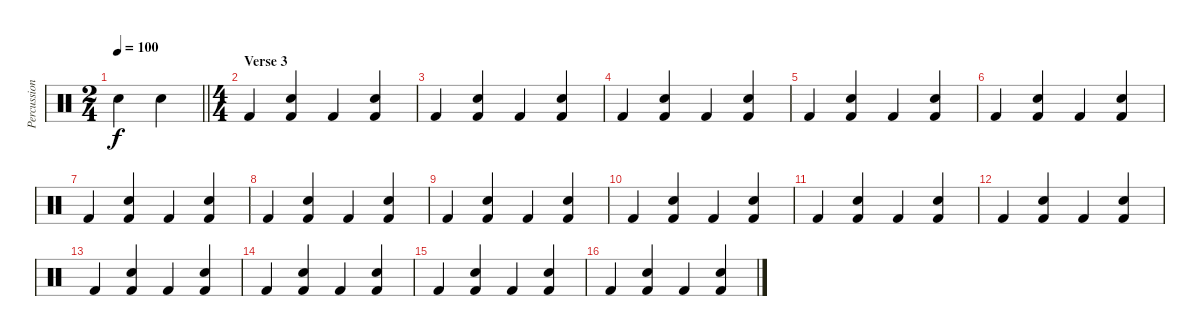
\track ("Percussion" "Percussion") {instrument percussion}
\staff {score}
\articulation defaults
\ts (2 4)
\tempo 100
\clef neutral
\barLineRight lightlight
\ks c "Snare (hit) 2".4{dy f} "Snare (hit) 2".4
|
\ts (4 4)
\section ("" "Verse 3")
"Kick (hit) 2".4 ("Snare (hit) 2" "Kick (hit) 2").4 "Kick (hit) 2".4 ("Snare (hit) 2" "Kick (hit) 2").4 |
"Kick (hit) 2".4 ("Snare (hit) 2" "Kick (hit) 2").4 "Kick (hit) 2".4 ("Snare (hit) 2" "Kick (hit) 2").4 |
"Kick (hit) 2".4 ("Snare (hit) 2" "Kick (hit) 2").4 "Kick (hit) 2".4 ("Snare (hit) 2" "Kick (hit) 2").4 |
"Kick (hit) 2".4 ("Snare (hit) 2" "Kick (hit) 2").4 "Kick (hit) 2".4 ("Snare (hit) 2" "Kick (hit) 2").4 |
"Kick (hit) 2".4 ("Snare (hit) 2" "Kick (hit) 2").4 "Kick (hit) 2".4 ("Snare (hit) 2" "Kick (hit) 2").4 |
"Kick (hit) 2".4 ("Snare (hit) 2" "Kick (hit) 2").4 "Kick (hit) 2".4 ("Snare (hit) 2" "Kick (hit) 2").4 |
"Kick (hit) 2".4 ("Snare (hit) 2" "Kick (hit) 2").4 "Kick (hit) 2".4 ("Snare (hit) 2" "Kick (hit) 2").4 |
"Kick (hit) 2".4 ("Snare (hit) 2" "Kick (hit) 2").4 "Kick (hit) 2".4 ("Snare (hit) 2" "Kick (hit) 2").4 |
"Kick (hit) 2".4 ("Snare (hit) 2" "Kick (hit) 2").4 "Kick (hit) 2".4 ("Snare (hit) 2" "Kick (hit) 2").4 |
"Kick (hit) 2".4 ("Snare (hit) 2" "Kick (hit) 2").4 "Kick (hit) 2".4 ("Snare (hit) 2" "Kick (hit) 2").4 |
"Kick (hit) 2".4 ("Snare (hit) 2" "Kick (hit) 2").4 "Kick (hit) 2".4 ("Snare (hit) 2" "Kick (hit) 2").4 |
"Kick (hit) 2".4 ("Snare (hit) 2" "Kick (hit) 2").4 "Kick (hit) 2".4 ("Snare (hit) 2" "Kick (hit) 2").4 |
"Kick (hit) 2".4 ("Snare (hit) 2" "Kick (hit) 2").4 "Kick (hit) 2".4 ("Snare (hit) 2" "Kick (hit) 2").4 |
"Kick (hit) 2".4 ("Snare (hit) 2" "Kick (hit) 2").4 "Kick (hit) 2".4 ("Snare (hit) 2" "Kick (hit) 2").4 |
"Kick (hit) 2".4 ("Snare (hit) 2" "Kick (hit) 2").4 "Kick (hit) 2".4 ("Snare (hit) 2" "Kick (hit) 2").4
